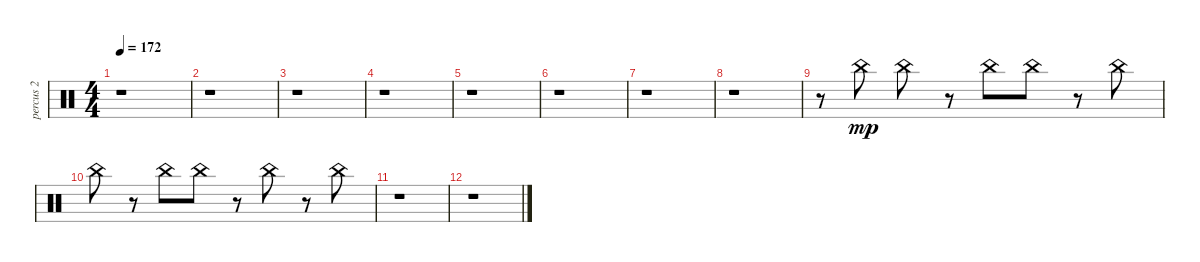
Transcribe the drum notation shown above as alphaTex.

\track ("percus 2" "percus 2") {instrument percussion}
\staff {score}
\articulation defaults
\ts (4 4)
\tempo 172
\clef neutral
\ks c
r.1{dy mp} |
r.1 |
r.1 |
r.1 |
r.1 |
r.1 |
r.1 |
r.1 |
r.8 "China (hit)".8 "China (hit)".8 r.8 "China (hit)".8 "China (hit)".8 r.8 "China (hit)".8 |
"China (hit)".8 r.8 "China (hit)".8 "China (hit)".8 r.8 "China (hit)".8 r.8 "China (hit)".8 |
r.1 |
r.1
